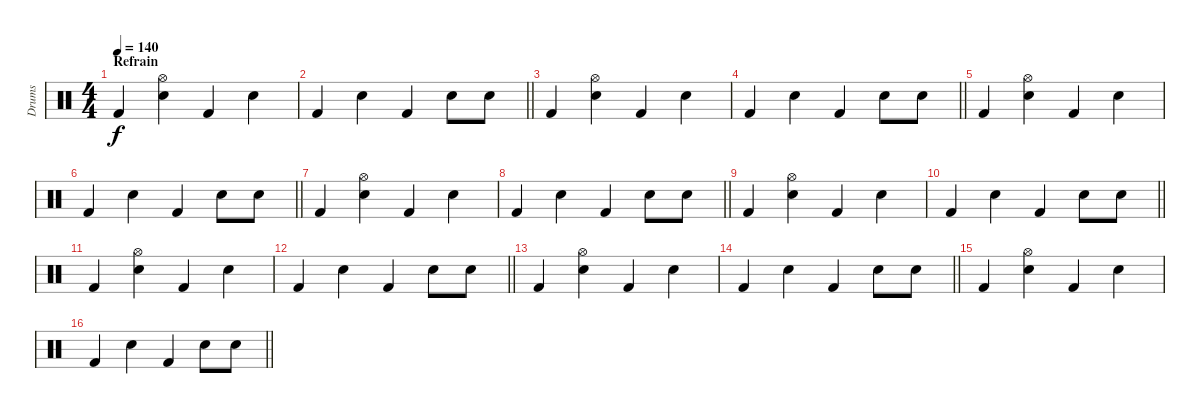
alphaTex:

\track ("Drums" "Drums") {instrument percussion}
\staff {score}
\articulation defaults
\ts (4 4)
\section ("" "Refrain")
\tempo 140
\clef neutral
\ks c "Kick (hit) 2".4{dy f}
("Snare (hit) 2" "Hi-Hat (open)").4 "Kick (hit) 2".4 "Snare (hit) 2".4 |
\barLineRight lightlight "Kick (hit) 2".4 "Snare (hit) 2".4 "Kick (hit) 2".4 "Snare (hit) 2".8 "Snare (hit) 2".8
|
"Kick (hit) 2".4 ("Snare (hit) 2" "Hi-Hat (open)").4 "Kick (hit) 2".4 "Snare (hit) 2".4 |
\barLineRight lightlight "Kick (hit) 2".4 "Snare (hit) 2".4 "Kick (hit) 2".4 "Snare (hit) 2".8 "Snare (hit) 2".8
|
"Kick (hit) 2".4 ("Snare (hit) 2" "Hi-Hat (open)").4 "Kick (hit) 2".4 "Snare (hit) 2".4 |
\barLineRight lightlight "Kick (hit) 2".4 "Snare (hit) 2".4 "Kick (hit) 2".4 "Snare (hit) 2".8 "Snare (hit) 2".8
|
"Kick (hit) 2".4 ("Snare (hit) 2" "Hi-Hat (open)").4 "Kick (hit) 2".4 "Snare (hit) 2".4 |
\barLineRight lightlight "Kick (hit) 2".4 "Snare (hit) 2".4 "Kick (hit) 2".4 "Snare (hit) 2".8 "Snare (hit) 2".8
|
"Kick (hit) 2".4 ("Snare (hit) 2" "Hi-Hat (open)").4 "Kick (hit) 2".4 "Snare (hit) 2".4 |
\barLineRight lightlight "Kick (hit) 2".4 "Snare (hit) 2".4 "Kick (hit) 2".4 "Snare (hit) 2".8 "Snare (hit) 2".8
|
"Kick (hit) 2".4 ("Snare (hit) 2" "Hi-Hat (open)").4 "Kick (hit) 2".4 "Snare (hit) 2".4 |
\barLineRight lightlight "Kick (hit) 2".4 "Snare (hit) 2".4 "Kick (hit) 2".4 "Snare (hit) 2".8 "Snare (hit) 2".8
|
"Kick (hit) 2".4 ("Snare (hit) 2" "Hi-Hat (open)").4 "Kick (hit) 2".4 "Snare (hit) 2".4 |
\barLineRight lightlight "Kick (hit) 2".4 "Snare (hit) 2".4 "Kick (hit) 2".4 "Snare (hit) 2".8 "Snare (hit) 2".8
|
"Kick (hit) 2".4 ("Snare (hit) 2" "Hi-Hat (open)").4 "Kick (hit) 2".4 "Snare (hit) 2".4 |
\barLineRight lightlight "Kick (hit) 2".4 "Snare (hit) 2".4 "Kick (hit) 2".4 "Snare (hit) 2".8 "Snare (hit) 2".8
